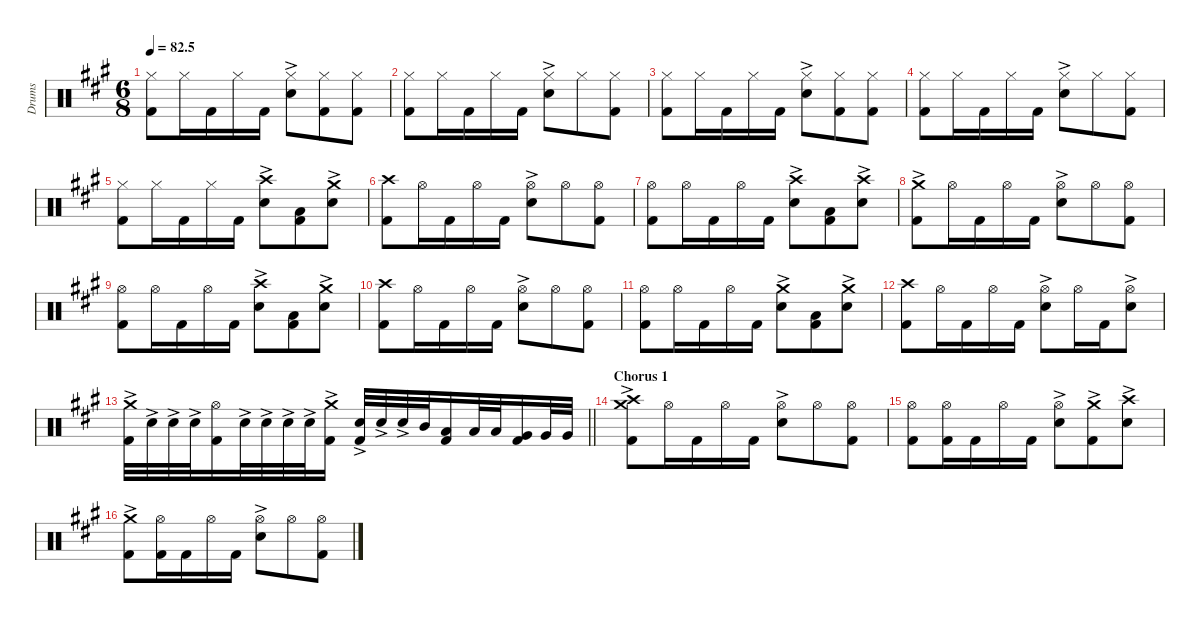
\defaultSystemsLayout 4
\hideDynamics
\bracketExtendMode nobrackets
\otherSystemsTrackNameOrientation horizontal
\track ("Drumkit-show" "Drums") {defaultSystemsLayout 4 mute instrument percussion}
\staff {score}
\articulation defaults
\ts (6 8)
\tempo
82.5
\accidentals auto
\clef neutral
\ottava regular
\simile none
\ks a
("Hi-Hat (closed)"{acc forcenatural} "Kick (hit) 2"{acc forcenatural}).8{dy f beam Down} "Hi-Hat (closed)"{acc forcenatural}.16{beam Down} "Kick (hit) 2"{acc forcenatural}.16{beam Down} "Hi-Hat (closed)"{acc forcenatural}.16{beam Down} "Kick (hit) 2"{acc forcenatural}.16{beam Down} ("Hi-Hat (closed)"{acc forcenatural} "Snare (hit) 2"{ac acc forcenatural}).8{beam Down} ("Hi-Hat (closed)"{acc forcenatural} "Kick (hit) 2"{acc forcenatural}).8{beam Down} ("Hi-Hat (closed)"{acc forcenatural} "Kick (hit) 2"{acc forcenatural}).8{beam Down} |
("Kick (hit) 2"{acc forcenatural} "Hi-Hat (closed)"{acc forcenatural}).8{beam Down} "Hi-Hat (closed)"{acc forcenatural}.16{beam Down} "Kick (hit) 2"{acc forcenatural}.16{beam Down} "Hi-Hat (closed)"{acc forcenatural}.16{beam Down} "Kick (hit) 2"{acc forcenatural}.16{beam Down} ("Hi-Hat (closed)"{acc forcenatural} "Snare (hit) 2"{ac acc forcenatural}).8{beam Down} "Hi-Hat (closed)"{acc forcenatural}.8{beam Down} ("Hi-Hat (closed)"{acc forcenatural} "Kick (hit) 2"{acc forcenatural}).8{beam Down} |
("Hi-Hat (closed)"{acc forcenatural} "Kick (hit) 2"{acc forcenatural}).8{beam Down} "Hi-Hat (closed)"{acc forcenatural}.16{beam Down} "Kick (hit) 2"{acc forcenatural}.16{beam Down} "Hi-Hat (closed)"{acc forcenatural}.16{beam Down} "Kick (hit) 2"{acc forcenatural}.16{beam Down} ("Hi-Hat (closed)"{acc forcenatural} "Snare (hit) 2"{ac acc forcenatural}).8{beam Down} ("Hi-Hat (closed)"{acc forcenatural} "Kick (hit) 2"{acc forcenatural}).8{beam Down} ("Hi-Hat (closed)"{acc forcenatural} "Kick (hit) 2"{acc forcenatural}).8{beam Down} |
("Kick (hit) 2"{acc forcenatural} "Hi-Hat (closed)"{acc forcenatural}).8{beam Down} "Hi-Hat (closed)"{acc forcenatural}.16{beam Down} "Kick (hit) 2"{acc forcenatural}.16{beam Down} "Hi-Hat (closed)"{acc forcenatural}.16{beam Down} "Kick (hit) 2"{acc forcenatural}.16{beam Down} ("Hi-Hat (closed)"{acc forcenatural} "Snare (hit) 2"{ac acc forcenatural}).8{beam Down} "Hi-Hat (closed)"{acc forcenatural}.8{beam Down} ("Hi-Hat (closed)"{acc forcenatural} "Kick (hit) 2"{acc forcenatural}).8{beam Down} |
("Kick (hit) 2"{acc forcenatural} "Hi-Hat (closed)"{acc forcenatural}).8{beam Down} "Hi-Hat (closed)"{acc forcenatural}.16{beam Down} "Kick (hit) 2"{acc forcenatural}.16{beam Down} "Hi-Hat (closed)"{acc forcenatural}.16{beam Down} "Kick (hit) 2"{acc forcenatural}.16{beam Down} ("Snare (hit) 2"{ac acc forcenatural} "Crash high (hit)"{acc forcenatural}).8{beam Down} ("Low Tom (hit)"{acc forcenatural} "Kick (hit) 2"{acc forcenatural}).8{beam Down} ("Snare (hit) 2"{ac acc forcenatural} "Crash medium (hit)"{ac acc forcenatural}).8{beam Down} |
("Crash high (hit)"{acc forcenatural} "Kick (hit) 2"{acc forcenatural}).8{beam Down} "Hi-Hat (open)"{acc forcenatural}.16{beam Down} "Kick (hit) 2"{acc forcenatural}.16{beam Down} "Hi-Hat (open)"{acc forcenatural}.16{beam Down} "Kick (hit) 2"{acc forcenatural}.16{beam Down} ("Hi-Hat (open)"{acc forcenatural} "Snare (hit) 2"{ac acc forcenatural}).8{beam Down} "Hi-Hat (open)"{acc forcenatural}.8{beam Down} ("Hi-Hat (open)"{acc forcenatural} "Kick (hit) 2"{acc forcenatural}).8{beam Down} |
("Hi-Hat (open)"{acc forcenatural} "Kick (hit) 2"{acc forcenatural}).8{beam Down} "Hi-Hat (open)"{acc forcenatural}.16{beam Down} "Kick (hit) 2"{acc forcenatural}.16{beam Down} "Hi-Hat (open)"{acc forcenatural}.16{beam Down} "Kick (hit) 2"{acc forcenatural}.16{beam Down} ("Snare (hit) 2"{ac acc forcenatural} "Crash high (hit)"{acc forcenatural}).8{beam Down} ("Low Tom (hit)"{acc forcenatural} "Kick (hit) 2"{acc forcenatural}).8{beam Down} ("Snare (hit) 2"{ac acc forcenatural} "Crash high (hit)"{acc forcenatural}).8{beam Down} |
("Crash medium (hit)"{ac acc forcenatural} "Kick (hit) 2"{acc forcenatural}).8{beam Down} "Hi-Hat (open)"{acc forcenatural}.16{beam Down} "Kick (hit) 2"{acc forcenatural}.16{beam Down} "Hi-Hat (open)"{acc forcenatural}.16{beam Down} "Kick (hit) 2"{acc forcenatural}.16{beam Down} ("Hi-Hat (open)"{acc forcenatural} "Snare (hit) 2"{ac acc forcenatural}).8{beam Down} "Hi-Hat (open)"{acc forcenatural}.8{beam Down} ("Hi-Hat (open)"{acc forcenatural} "Kick (hit) 2"{acc forcenatural}).8{beam Down} |
("Hi-Hat (open)"{acc forcenatural} "Kick (hit) 2"{acc forcenatural}).8{beam Down} "Hi-Hat (open)"{acc forcenatural}.16{beam Down} "Kick (hit) 2"{acc forcenatural}.16{beam Down} "Hi-Hat (open)"{acc forcenatural}.16{beam Down} "Kick (hit) 2"{acc forcenatural}.16{beam Down} ("Snare (hit) 2"{ac acc forcenatural} "Crash high (hit)"{acc forcenatural}).8{beam Down} ("Low Tom (hit)"{acc forcenatural} "Kick (hit) 2"{acc forcenatural}).8{beam Down} ("Crash medium (hit)"{ac acc forcenatural} "Snare (hit) 2"{ac acc forcenatural}).8{beam Down} |
("Crash high (hit)"{acc forcenatural} "Kick (hit) 2"{acc forcenatural}).8{beam Down} "Hi-Hat (open)"{acc forcenatural}.16{beam Down} "Kick (hit) 2"{acc forcenatural}.16{beam Down} "Hi-Hat (open)"{acc forcenatural}.16{beam Down} "Kick (hit) 2"{acc forcenatural}.16{beam Down} ("Hi-Hat (open)"{acc forcenatural} "Snare (hit) 2"{ac acc forcenatural}).8{beam Down} "Hi-Hat (open)"{acc forcenatural}.8{beam Down} ("Hi-Hat (open)"{acc forcenatural} "Kick (hit) 2"{acc forcenatural}).8{beam Down} |
("Hi-Hat (open)"{acc forcenatural} "Kick (hit) 2"{acc forcenatural}).8{beam Down} "Hi-Hat (open)"{acc forcenatural}.16{beam Down} "Kick (hit) 2"{acc forcenatural}.16{beam Down} "Hi-Hat (open)"{acc forcenatural}.16{beam Down} "Kick (hit) 2"{acc forcenatural}.16{beam Down} ("Crash medium (hit)"{ac acc forcenatural} "Snare (hit) 2"{ac acc forcenatural}).8{beam Down} ("Low Tom (hit)"{acc forcenatural} "Kick (hit) 2"{acc forcenatural}).8{beam Down} ("Crash medium (hit)"{ac acc forcenatural} "Snare (hit) 2"{ac acc forcenatural}).8{beam Down} |
("Crash high (hit)"{acc forcenatural} "Kick (hit) 2"{acc forcenatural}).8{beam Down} "Hi-Hat (open)"{acc forcenatural}.16{beam Down} "Kick (hit) 2"{acc forcenatural}.16{beam Down} "Hi-Hat (open)"{acc forcenatural}.16{beam Down} "Kick (hit) 2"{acc forcenatural}.16{beam Down} ("Hi-Hat (open)"{acc forcenatural} "Snare (hit) 2"{ac acc forcenatural}).8{beam Down} "Hi-Hat (open)"{acc forcenatural}.16{beam Down} "Kick (hit) 2"{acc forcenatural}.16{beam Down} ("Hi-Hat (open)"{acc forcenatural} "Snare (hit) 2"{ac acc forcenatural}).8{beam Down} |
\barLineRight lightlight
("Crash medium (hit)"{ac acc forcenatural} "Kick (hit) 2"{acc forcenatural}).32{beam Down} "Snare (hit) 2"{ac acc forcenatural}.32{beam Down} "Snare (hit) 2"{ac acc forcenatural}.32{beam Down} "Snare (hit) 2"{ac acc forcenatural}.32{beam Down} ("Hi-Hat (open)"{acc forcenatural} "Kick (hit) 2"{acc forcenatural}).16{beam Down} "Snare (hit) 2"{ac acc forcenatural}.32{beam Down} "Snare (hit) 2"{ac acc forcenatural}.32{beam Down} "Snare (hit) 2"{ac acc forcenatural}.32{beam Down} "Snare (hit) 2"{ac acc forcenatural}.32{beam Down} ("Crash medium (hit)"{ac acc forcenatural} "Kick (hit) 2"{acc forcenatural}).16{beam Down} ("Snare (hit) 2"{ac acc forcenatural} "Kick (hit) 2"{acc forcenatural}).32{beam Up} "Snare (hit) 2"{ac acc forcenatural}.32{beam Up} "Snare (hit) 2"{ac acc forcenatural}.32{beam Up} "Mid Tom (hit)"{acc forcenatural}.32{beam Up} ("Low Tom (hit)"{acc forcenatural} "Kick (hit) 2"{acc forcenatural}).16{beam Up} "Low Tom (hit)"{acc forcenatural}.32{beam Up} "Low Tom (hit)"{acc forcenatural}.32{beam Up} ("Very Low Tom (hit)"{acc forcenatural} "Kick (hit) 2"{acc forcenatural}).16{beam Up} "Very Low Tom (hit)"{acc forcenatural}.32{beam Up} "Very Low Tom (hit)"{acc forcenatural}.32{beam Up} |
\section ("" "Chorus 1")
("Crash medium (hit)"{ac acc forcenatural} "Crash high (hit)"{acc forcenatural} "Kick (hit) 2"{acc forcenatural}).8{beam Down} "Hi-Hat (open)"{acc forcenatural}.16{beam Down} "Kick (hit) 2"{acc forcenatural}.16{beam Down} "Hi-Hat (open)"{acc forcenatural}.16{beam Down} "Kick (hit) 2"{acc forcenatural}.16{beam Down} ("Hi-Hat (open)"{acc forcenatural} "Snare (hit) 2"{ac acc forcenatural}).8{beam Down} "Hi-Hat (open)"{acc forcenatural}.8{beam Down} ("Hi-Hat (open)"{acc forcenatural} "Kick (hit) 2"{acc forcenatural}).8{beam Down} |
("Hi-Hat (open)"{acc forcenatural} "Kick (hit) 2"{acc forcenatural}).8{beam Down} ("Hi-Hat (open)"{acc forcenatural} "Kick (hit) 2"{acc forcenatural}).16{beam Down} "Kick (hit) 2"{acc forcenatural}.16{beam Down} "Hi-Hat (open)"{acc forcenatural}.16{beam Down} "Kick (hit) 2"{acc forcenatural}.16{beam Down} ("Snare (hit) 2"{ac acc forcenatural} "Hi-Hat (open)"{acc forcenatural}).8{beam Down} ("Kick (hit) 2"{acc forcenatural} "Crash medium (hit)"{ac acc forcenatural}).8{beam Down} ("Snare (hit) 2"{ac acc forcenatural} "Crash high (hit)"{acc forcenatural}).8{beam Down} |
("Crash medium (hit)"{ac acc forcenatural} "Kick (hit) 2"{acc forcenatural}).8{beam Down} ("Hi-Hat (open)"{acc forcenatural} "Kick (hit) 2"{acc forcenatural}).16{beam Down} "Kick (hit) 2"{acc forcenatural}.16{beam Down} "Hi-Hat (open)"{acc forcenatural}.16{beam Down} "Kick (hit) 2"{acc forcenatural}.16{beam Down} ("Hi-Hat (open)"{acc forcenatural} "Snare (hit) 2"{ac acc forcenatural}).8{beam Down} "Hi-Hat (open)"{acc forcenatural}.8{beam Down} ("Hi-Hat (open)"{acc forcenatural} "Kick (hit) 2"{acc forcenatural}).8{beam Down}
